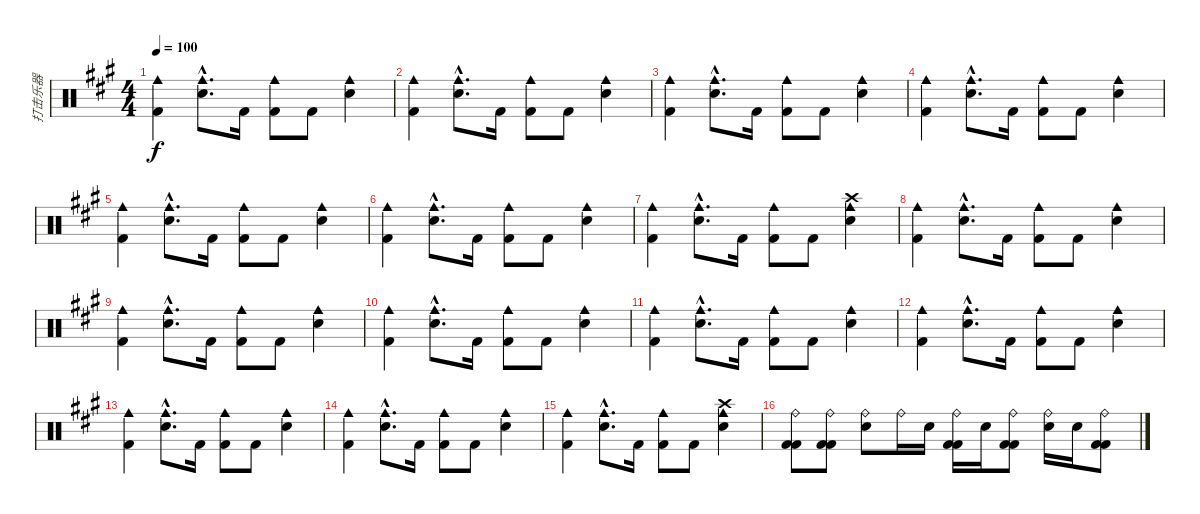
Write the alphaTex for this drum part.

\track ("打击乐器" "打击乐器") {instrument percussion}
\staff {score}
\articulation defaults
\ts (4 4)
\tempo 100
\clef neutral
\ks a
("Cowbell medium (hit)" "Kick (hit) 2").4{dy f} ("Cowbell medium (hit)"{hac} "Electric Snare (hit)"{hac}).8{d} "Kick (hit) 2".16 ("Cowbell medium (hit)" "Kick (hit) 2").8 "Kick (hit) 2".8 ("Cowbell medium (hit)" "Electric Snare (hit)").4 |
("Cowbell medium (hit)" "Kick (hit) 2").4 ("Cowbell medium (hit)"{hac} "Electric Snare (hit)"{hac}).8{d} "Kick (hit) 2".16 ("Cowbell medium (hit)" "Kick (hit) 2").8 "Kick (hit) 2".8 ("Cowbell medium (hit)" "Electric Snare (hit)").4 |
("Cowbell medium (hit)" "Kick (hit) 2").4 ("Cowbell medium (hit)"{hac} "Electric Snare (hit)"{hac}).8{d} "Kick (hit) 2".16 ("Cowbell medium (hit)" "Kick (hit) 2").8 "Kick (hit) 2".8 ("Cowbell medium (hit)" "Electric Snare (hit)").4 |
("Cowbell medium (hit)" "Kick (hit) 2").4 ("Cowbell medium (hit)"{hac} "Electric Snare (hit)"{hac}).8{d} "Kick (hit) 2".16 ("Cowbell medium (hit)" "Kick (hit) 2").8 "Kick (hit) 2".8 ("Cowbell medium (hit)" "Electric Snare (hit)").4 |
("Cowbell medium (hit)" "Kick (hit) 2").4 ("Cowbell medium (hit)"{hac} "Electric Snare (hit)"{hac}).8{d} "Kick (hit) 2".16 ("Cowbell medium (hit)" "Kick (hit) 2").8 "Kick (hit) 2".8 ("Cowbell medium (hit)" "Electric Snare (hit)").4 |
("Cowbell medium (hit)" "Kick (hit) 2").4 ("Cowbell medium (hit)"{hac} "Electric Snare (hit)"{hac}).8{d} "Kick (hit) 2".16 ("Cowbell medium (hit)" "Kick (hit) 2").8 "Kick (hit) 2".8 ("Cowbell medium (hit)" "Electric Snare (hit)").4 |
("Cowbell medium (hit)" "Kick (hit) 2").4 ("Cowbell medium (hit)"{hac} "Electric Snare (hit)"{hac}).8{d} "Kick (hit) 2".16 ("Cowbell medium (hit)" "Kick (hit) 2").8 "Kick (hit) 2".8 ("Crash high (hit)" "Cowbell medium (hit)" "Electric Snare (hit)").4 |
("Cowbell medium (hit)" "Kick (hit) 2").4 ("Cowbell medium (hit)"{hac} "Electric Snare (hit)"{hac}).8{d} "Kick (hit) 2".16 ("Cowbell medium (hit)" "Kick (hit) 2").8 "Kick (hit) 2".8 ("Cowbell medium (hit)" "Electric Snare (hit)").4 |
("Cowbell medium (hit)" "Kick (hit) 2").4 ("Cowbell medium (hit)"{hac} "Electric Snare (hit)"{hac}).8{d} "Kick (hit) 2".16 ("Cowbell medium (hit)" "Kick (hit) 2").8 "Kick (hit) 2".8 ("Cowbell medium (hit)" "Electric Snare (hit)").4 |
("Cowbell medium (hit)" "Kick (hit) 2").4 ("Cowbell medium (hit)"{hac} "Electric Snare (hit)"{hac}).8{d} "Kick (hit) 2".16 ("Cowbell medium (hit)" "Kick (hit) 2").8 "Kick (hit) 2".8 ("Cowbell medium (hit)" "Electric Snare (hit)").4 |
("Cowbell medium (hit)" "Kick (hit) 2").4 ("Cowbell medium (hit)"{hac} "Electric Snare (hit)"{hac}).8{d} "Kick (hit) 2".16 ("Cowbell medium (hit)" "Kick (hit) 2").8 "Kick (hit) 2".8 ("Cowbell medium (hit)" "Electric Snare (hit)").4 |
("Cowbell medium (hit)" "Kick (hit) 2").4 ("Cowbell medium (hit)"{hac} "Electric Snare (hit)"{hac}).8{d} "Kick (hit) 2".16 ("Cowbell medium (hit)" "Kick (hit) 2").8 "Kick (hit) 2".8 ("Cowbell medium (hit)" "Electric Snare (hit)").4 |
("Cowbell medium (hit)" "Kick (hit) 2").4 ("Cowbell medium (hit)"{hac} "Electric Snare (hit)"{hac}).8{d} "Kick (hit) 2".16 ("Cowbell medium (hit)" "Kick (hit) 2").8 "Kick (hit) 2".8 ("Cowbell medium (hit)" "Electric Snare (hit)").4 |
("Cowbell medium (hit)" "Kick (hit) 2").4 ("Cowbell medium (hit)"{hac} "Electric Snare (hit)"{hac}).8{d} "Kick (hit) 2".16 ("Cowbell medium (hit)" "Kick (hit) 2").8 "Kick (hit) 2".8 ("Cowbell medium (hit)" "Electric Snare (hit)").4 |
("Cowbell medium (hit)" "Kick (hit) 2").4 ("Cowbell medium (hit)"{hac} "Electric Snare (hit)"{hac}).8{d} "Kick (hit) 2".16 ("Cowbell medium (hit)" "Kick (hit) 2").8 "Kick (hit) 2".8 ("Crash high (hit)" "Cowbell medium (hit)" "Electric Snare (hit)").4 |
("Ride (bell)" "Kick (hit) 2" "Kick (hit) 2").8 ("Ride (bell)" "Kick (hit) 2" "Kick (hit) 2").8 ("Ride (bell)" "Electric Snare (hit)").8 "Ride (bell)".16 "Electric Snare (hit)".16 ("Ride (bell)" "Kick (hit) 2" "Kick (hit) 2").16 "Electric Snare (hit)".16 ("Ride (bell)" "Kick (hit) 2" "Kick (hit) 2").8 ("Ride (bell)" "Electric Snare (hit)").16 "Electric Snare (hit)".16 ("Ride (bell)" "Kick (hit) 2" "Kick (hit) 2").8
